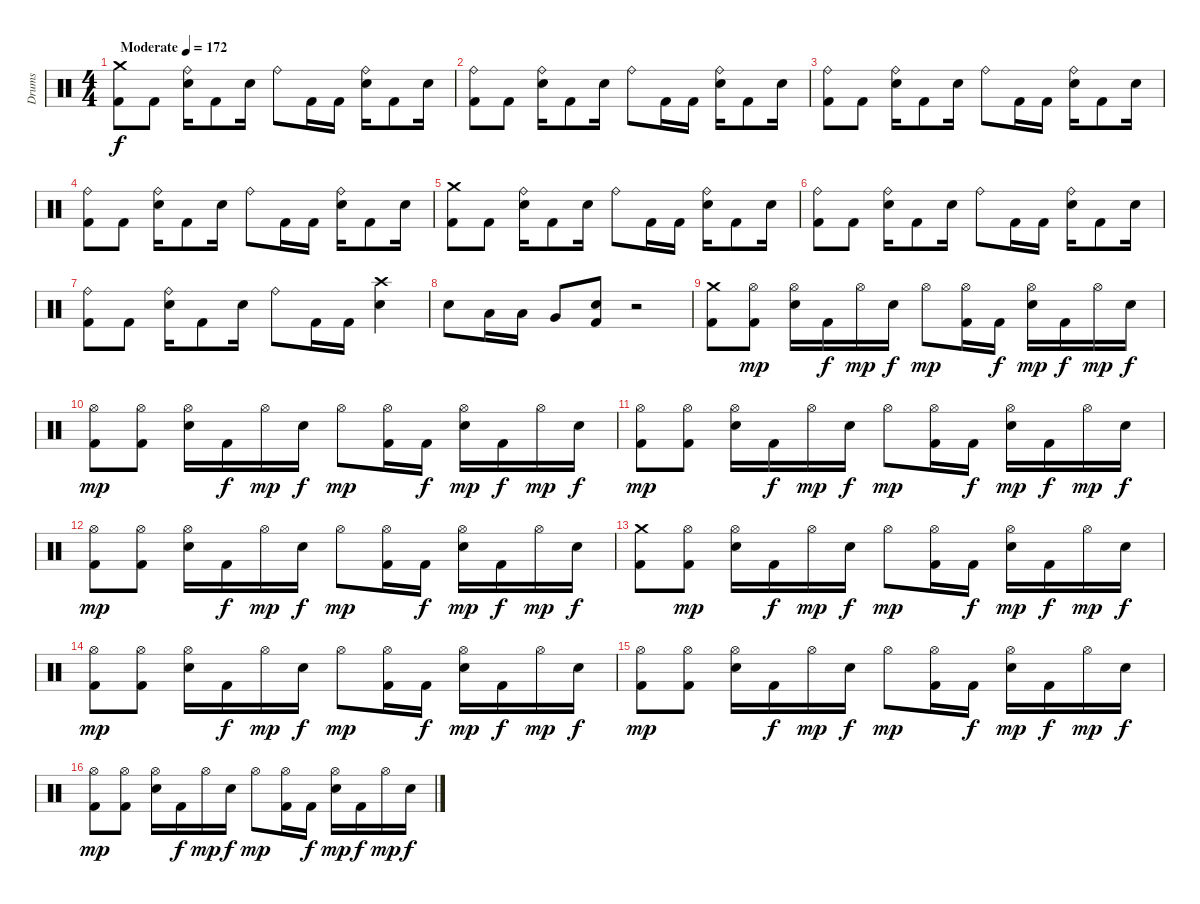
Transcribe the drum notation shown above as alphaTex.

\track ("Drums" "Drums") {instrument percussion}
\staff {score}
\articulation defaults
\ts (4 4)
\tempo (172 "Moderate")
\clef neutral
\ks c
("Crash medium (hit)" "Kick (hit) 2").8{dy f} "Kick (hit) 2".8 ("Ride (bell)" "Snare (hit) 2").16 "Kick (hit) 2".8 "Snare (hit) 2".16 "Ride (bell)".8 "Kick (hit) 2".16 "Kick (hit) 2".16 ("Ride (bell)" "Snare (hit) 2").16 "Kick (hit) 2".8 "Snare (hit) 2".16 |
("Ride (bell)" "Kick (hit) 2").8 "Kick (hit) 2".8 ("Ride (bell)" "Snare (hit) 2").16 "Kick (hit) 2".8 "Snare (hit) 2".16 "Ride (bell)".8 "Kick (hit) 2".16 "Kick (hit) 2".16 ("Ride (bell)" "Snare (hit) 2").16 "Kick (hit) 2".8 "Snare (hit) 2".16 |
("Ride (bell)" "Kick (hit) 2").8 "Kick (hit) 2".8 ("Ride (bell)" "Snare (hit) 2").16 "Kick (hit) 2".8 "Snare (hit) 2".16 "Ride (bell)".8 "Kick (hit) 2".16 "Kick (hit) 2".16 ("Ride (bell)" "Snare (hit) 2").16 "Kick (hit) 2".8 "Snare (hit) 2".16 |
("Ride (bell)" "Kick (hit) 2").8 "Kick (hit) 2".8 ("Ride (bell)" "Snare (hit) 2").16 "Kick (hit) 2".8 "Snare (hit) 2".16 "Ride (bell)".8 "Kick (hit) 2".16 "Kick (hit) 2".16 ("Ride (bell)" "Snare (hit) 2").16 "Kick (hit) 2".8 "Snare (hit) 2".16 |
("Crash medium (hit)" "Kick (hit) 2").8 "Kick (hit) 2".8 ("Ride (bell)" "Snare (hit) 2").16 "Kick (hit) 2".8 "Snare (hit) 2".16 "Ride (bell)".8 "Kick (hit) 2".16 "Kick (hit) 2".16 ("Ride (bell)" "Snare (hit) 2").16 "Kick (hit) 2".8 "Snare (hit) 2".16 |
("Ride (bell)" "Kick (hit) 2").8 "Kick (hit) 2".8 ("Ride (bell)" "Snare (hit) 2").16 "Kick (hit) 2".8 "Snare (hit) 2".16 "Ride (bell)".8 "Kick (hit) 2".16 "Kick (hit) 2".16 ("Ride (bell)" "Snare (hit) 2").16 "Kick (hit) 2".8 "Snare (hit) 2".16 |
("Ride (bell)" "Kick (hit) 2").8 "Kick (hit) 2".8 ("Ride (bell)" "Snare (hit) 2").16 "Kick (hit) 2".8 "Snare (hit) 2".16 "Ride (bell)".8 "Kick (hit) 2".16 "Kick (hit) 2".16 ("Crash high (hit)" "Snare (hit) 2").4 |
"Snare (hit) 2".8 "Low Tom (hit)".16 "Low Tom (hit)".16 "Very Low Tom (hit)".8 ("Snare (hit) 2" "Kick (hit) 2").8 r.2 |
("Crash medium (hit)" "Kick (hit) 2").8 ("Hi-Hat (open)" "Kick (hit) 2").8{dy mp} ("Hi-Hat (open)" "Snare (hit) 2").16 "Kick (hit) 2".16{dy f} "Hi-Hat (open)".16{dy mp} "Snare (hit) 2".16{dy f} "Hi-Hat (open)".8{dy mp} ("Hi-Hat (open)" "Kick (hit) 2").16 "Kick (hit) 2".16{dy f} ("Hi-Hat (open)" "Snare (hit) 2").16{dy mp} "Kick (hit) 2".16{dy f} "Hi-Hat (open)".16{dy mp} "Snare (hit) 2".16{dy f} |
("Hi-Hat (open)" "Kick (hit) 2").8{dy mp} ("Hi-Hat (open)" "Kick (hit) 2").8 ("Hi-Hat (open)" "Snare (hit) 2").16 "Kick (hit) 2".16{dy f} "Hi-Hat (open)".16{dy mp} "Snare (hit) 2".16{dy f} "Hi-Hat (open)".8{dy mp} ("Hi-Hat (open)" "Kick (hit) 2").16 "Kick (hit) 2".16{dy f} ("Hi-Hat (open)" "Snare (hit) 2").16{dy mp} "Kick (hit) 2".16{dy f} "Hi-Hat (open)".16{dy mp} "Snare (hit) 2".16{dy f} |
("Hi-Hat (open)" "Kick (hit) 2").8{dy mp} ("Hi-Hat (open)" "Kick (hit) 2").8 ("Hi-Hat (open)" "Snare (hit) 2").16 "Kick (hit) 2".16{dy f} "Hi-Hat (open)".16{dy mp} "Snare (hit) 2".16{dy f} "Hi-Hat (open)".8{dy mp} ("Hi-Hat (open)" "Kick (hit) 2").16 "Kick (hit) 2".16{dy f} ("Hi-Hat (open)" "Snare (hit) 2").16{dy mp} "Kick (hit) 2".16{dy f} "Hi-Hat (open)".16{dy mp} "Snare (hit) 2".16{dy f} |
("Hi-Hat (open)" "Kick (hit) 2").8{dy mp} ("Hi-Hat (open)" "Kick (hit) 2").8 ("Hi-Hat (open)" "Snare (hit) 2").16 "Kick (hit) 2".16{dy f} "Hi-Hat (open)".16{dy mp} "Snare (hit) 2".16{dy f} "Hi-Hat (open)".8{dy mp} ("Hi-Hat (open)" "Kick (hit) 2").16 "Kick (hit) 2".16{dy f} ("Hi-Hat (open)" "Snare (hit) 2").16{dy mp} "Kick (hit) 2".16{dy f} "Hi-Hat (open)".16{dy mp} "Snare (hit) 2".16{dy f} |
("Crash medium (hit)" "Kick (hit) 2").8 ("Hi-Hat (open)" "Kick (hit) 2").8{dy mp} ("Hi-Hat (open)" "Snare (hit) 2").16 "Kick (hit) 2".16{dy f} "Hi-Hat (open)".16{dy mp} "Snare (hit) 2".16{dy f} "Hi-Hat (open)".8{dy mp} ("Hi-Hat (open)" "Kick (hit) 2").16 "Kick (hit) 2".16{dy f} ("Hi-Hat (open)" "Snare (hit) 2").16{dy mp} "Kick (hit) 2".16{dy f} "Hi-Hat (open)".16{dy mp} "Snare (hit) 2".16{dy f} |
("Hi-Hat (open)" "Kick (hit) 2").8{dy mp} ("Hi-Hat (open)" "Kick (hit) 2").8 ("Hi-Hat (open)" "Snare (hit) 2").16 "Kick (hit) 2".16{dy f} "Hi-Hat (open)".16{dy mp} "Snare (hit) 2".16{dy f} "Hi-Hat (open)".8{dy mp} ("Hi-Hat (open)" "Kick (hit) 2").16 "Kick (hit) 2".16{dy f} ("Hi-Hat (open)" "Snare (hit) 2").16{dy mp} "Kick (hit) 2".16{dy f} "Hi-Hat (open)".16{dy mp} "Snare (hit) 2".16{dy f} |
("Hi-Hat (open)" "Kick (hit) 2").8{dy mp} ("Hi-Hat (open)" "Kick (hit) 2").8 ("Hi-Hat (open)" "Snare (hit) 2").16 "Kick (hit) 2".16{dy f} "Hi-Hat (open)".16{dy mp} "Snare (hit) 2".16{dy f} "Hi-Hat (open)".8{dy mp} ("Hi-Hat (open)" "Kick (hit) 2").16 "Kick (hit) 2".16{dy f} ("Hi-Hat (open)" "Snare (hit) 2").16{dy mp} "Kick (hit) 2".16{dy f} "Hi-Hat (open)".16{dy mp} "Snare (hit) 2".16{dy f} |
("Hi-Hat (open)" "Kick (hit) 2").8{dy mp} ("Hi-Hat (open)" "Kick (hit) 2").8 ("Hi-Hat (open)" "Snare (hit) 2").16 "Kick (hit) 2".16{dy f} "Hi-Hat (open)".16{dy mp} "Snare (hit) 2".16{dy f} "Hi-Hat (open)".8{dy mp} ("Hi-Hat (open)" "Kick (hit) 2").16 "Kick (hit) 2".16{dy f} ("Hi-Hat (open)" "Snare (hit) 2").16{dy mp} "Kick (hit) 2".16{dy f} "Hi-Hat (open)".16{dy mp} "Snare (hit) 2".16{dy f}
